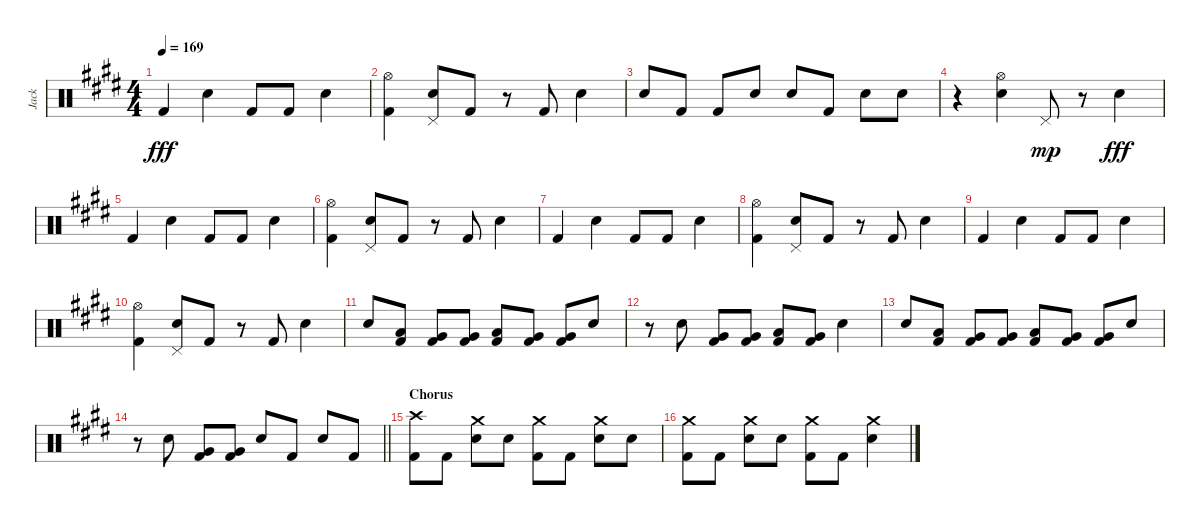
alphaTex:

\track ("Jack" "Jack") {instrument percussion}
\staff {score}
\articulation defaults
\ts (4 4)
\tempo 169
\clef neutral
\ks c#minor "Kick (hit) 2".4{dy fff} "Electric Snare (hit)".4 "Kick (hit) 2".8 "Kick (hit) 2".8 "Electric Snare (hit)".4
|
("Hi-Hat (open)" "Kick (hit) 2").4 ("Pedal Hi-Hat (hit)" "Electric Snare (hit)").8 "Kick (hit) 2".8 r.8 "Kick (hit) 2".8 "Electric Snare (hit)".4 |
"Electric Snare (hit)".8 "Kick (hit) 2".8 "Kick (hit) 2".8 "Electric Snare (hit)".8 "Electric Snare (hit)".8 "Kick (hit) 2".8 "Electric Snare (hit)".8 "Electric Snare (hit)".8 |
r.4 ("Hi-Hat (open)" "Electric Snare (hit)").4 "Pedal Hi-Hat (hit)".8{dy mp} r.8 "Electric Snare (hit)".4{dy fff} |
"Kick (hit) 2".4 "Electric Snare (hit)".4 "Kick (hit) 2".8 "Kick (hit) 2".8 "Electric Snare (hit)".4 |
("Hi-Hat (open)" "Kick (hit) 2").4 ("Pedal Hi-Hat (hit)" "Electric Snare (hit)").8 "Kick (hit) 2".8 r.8 "Kick (hit) 2".8 "Electric Snare (hit)".4 |
"Kick (hit) 2".4 "Electric Snare (hit)".4 "Kick (hit) 2".8 "Kick (hit) 2".8 "Electric Snare (hit)".4 |
("Hi-Hat (open)" "Kick (hit) 2").4 ("Pedal Hi-Hat (hit)" "Electric Snare (hit)").8 "Kick (hit) 2".8 r.8 "Kick (hit) 2".8 "Electric Snare (hit)".4 |
"Kick (hit) 2".4 "Electric Snare (hit)".4 "Kick (hit) 2".8 "Kick (hit) 2".8 "Electric Snare (hit)".4 |
("Hi-Hat (open)" "Kick (hit) 2").4 ("Pedal Hi-Hat (hit)" "Electric Snare (hit)").8 "Kick (hit) 2".8 r.8 "Kick (hit) 2".8 "Electric Snare (hit)".4 |
"Electric Snare (hit)".8 ("Low Tom (hit)" "Kick (hit) 2").8 ("Very Low Tom (hit)" "Kick (hit) 2").8 ("Very Low Tom (hit)" "Kick (hit) 2").8 ("Low Tom (hit)" "Kick (hit) 2").8 ("Very Low Tom (hit)" "Kick (hit) 2").8 ("Very Low Tom (hit)" "Kick (hit) 2").8 "Electric Snare (hit)".8 |
r.8 "Electric Snare (hit)".8 ("Very Low Tom (hit)" "Kick (hit) 2").8 ("Very Low Tom (hit)" "Kick (hit) 2").8 ("Low Tom (hit)" "Kick (hit) 2").8 ("Very Low Tom (hit)" "Kick (hit) 2").8 "Electric Snare (hit)".4 |
"Electric Snare (hit)".8 ("Low Tom (hit)" "Kick (hit) 2").8 ("Very Low Tom (hit)" "Kick (hit) 2").8 ("Very Low Tom (hit)" "Kick (hit) 2").8 ("Low Tom (hit)" "Kick (hit) 2").8 ("Very Low Tom (hit)" "Kick (hit) 2").8 ("Very Low Tom (hit)" "Kick (hit) 2").8 "Electric Snare (hit)".8 |
\barLineRight lightlight
r.8 "Electric Snare (hit)".8 ("Very Low Tom (hit)" "Kick (hit) 2").8 ("Very Low Tom (hit)" "Kick (hit) 2").8 "Electric Snare (hit)".8 "Kick (hit) 2".8 "Electric Snare (hit)".8 "Kick (hit) 2".8 |
\section ("" "Chorus")
("Crash high (hit)" "Kick (hit) 2").8 "Kick (hit) 2".8 ("Crash medium (hit)" "Electric Snare (hit)").8 "Electric Snare (hit)".8 ("Crash medium (hit)" "Kick (hit) 2").8 "Kick (hit) 2".8 ("Crash medium (hit)" "Electric Snare (hit)").8 "Electric Snare (hit)".8 |
("Crash medium (hit)" "Kick (hit) 2").8 "Kick (hit) 2".8 ("Crash medium (hit)" "Electric Snare (hit)").8 "Electric Snare (hit)".8 ("Crash medium (hit)" "Kick (hit) 2").8 "Kick (hit) 2".8 ("Crash medium (hit)" "Electric Snare (hit)").4
